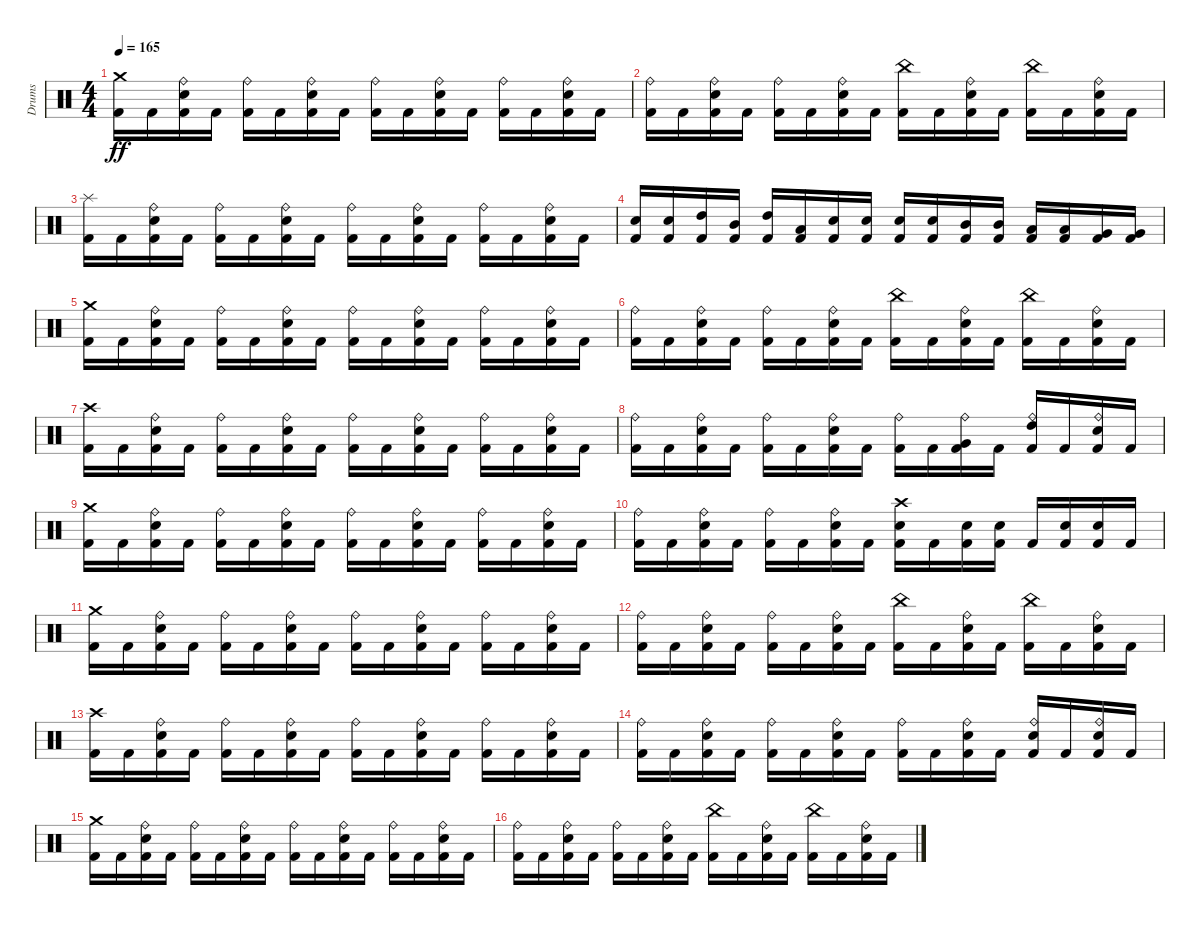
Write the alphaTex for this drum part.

\track ("Drums" "Drums") {instrument percussion}
\staff {score}
\articulation defaults
\ts (4 4)
\tempo 165
\clef neutral
\ks c
("Crash medium (hit)" "Kick (hit) 2").16{dy ff} "Kick (hit) 2".16 ("Ride (bell)" "Electric Snare (hit)" "Kick (hit) 2").16 "Kick (hit) 2".16 ("Ride (bell)" "Kick (hit) 2").16 "Kick (hit) 2".16 ("Ride (bell)" "Electric Snare (hit)" "Kick (hit) 2").16 "Kick (hit) 2".16 ("Ride (bell)" "Kick (hit) 2").16 "Kick (hit) 2".16 ("Ride (bell)" "Electric Snare (hit)" "Kick (hit) 2").16 "Kick (hit) 2".16 ("Ride (bell)" "Kick (hit) 2").16 "Kick (hit) 2".16 ("Ride (bell)" "Electric Snare (hit)" "Kick (hit) 2").16 "Kick (hit) 2".16 |
("Ride (bell)" "Kick (hit) 2").16 "Kick (hit) 2".16 ("Ride (bell)" "Electric Snare (hit)" "Kick (hit) 2").16 "Kick (hit) 2".16 ("Ride (bell)" "Kick (hit) 2").16 "Kick (hit) 2".16 ("Ride (bell)" "Electric Snare (hit)" "Kick (hit) 2").16 "Kick (hit) 2".16 ("China (hit)" "Kick (hit) 2").16 "Kick (hit) 2".16 ("Ride (bell)" "Electric Snare (hit)" "Kick (hit) 2").16 "Kick (hit) 2".16 ("China (hit)" "Kick (hit) 2").16 "Kick (hit) 2".16 ("Ride (bell)" "Electric Snare (hit)" "Kick (hit) 2").16 "Kick (hit) 2".16 |
("Splash (hit)" "Kick (hit) 2").16 "Kick (hit) 2".16 ("Ride (bell)" "Electric Snare (hit)" "Kick (hit) 2").16 "Kick (hit) 2".16 ("Ride (bell)" "Kick (hit) 2").16 "Kick (hit) 2".16 ("Ride (bell)" "Electric Snare (hit)" "Kick (hit) 2").16 "Kick (hit) 2".16 ("Ride (bell)" "Kick (hit) 2").16 "Kick (hit) 2".16 ("Ride (bell)" "Electric Snare (hit)" "Kick (hit) 2").16 "Kick (hit) 2".16 ("Ride (bell)" "Kick (hit) 2").16 "Kick (hit) 2".16 ("Ride (bell)" "Electric Snare (hit)" "Kick (hit) 2").16 "Kick (hit) 2".16 |
("Electric Snare (hit)" "Kick (hit) 2").16 ("Electric Snare (hit)" "Kick (hit) 2").16 ("High Tom (hit)" "Kick (hit) 2").16 ("Mid Tom (hit)" "Kick (hit) 2").16 ("High Tom (hit)" "Kick (hit) 2").16 ("Low Tom (hit)" "Kick (hit) 2").16 ("Electric Snare (hit)" "Kick (hit) 2").16 ("Electric Snare (hit)" "Kick (hit) 2").16 ("Electric Snare (hit)" "Kick (hit) 2").16 ("Electric Snare (hit)" "Kick (hit) 2").16 ("Mid Tom (hit)" "Kick (hit) 2").16 ("Mid Tom (hit)" "Kick (hit) 2").16 ("Low Tom (hit)" "Kick (hit) 2").16 ("Low Tom (hit)" "Kick (hit) 2").16 ("Very Low Tom (hit)" "Kick (hit) 2").16 ("Very Low Tom (hit)" "Kick (hit) 2").16 |
("Crash medium (hit)" "Kick (hit) 2").16 "Kick (hit) 2".16 ("Ride (bell)" "Electric Snare (hit)" "Kick (hit) 2").16 "Kick (hit) 2".16 ("Ride (bell)" "Kick (hit) 2").16 "Kick (hit) 2".16 ("Ride (bell)" "Electric Snare (hit)" "Kick (hit) 2").16 "Kick (hit) 2".16 ("Ride (bell)" "Kick (hit) 2").16 "Kick (hit) 2".16 ("Ride (bell)" "Electric Snare (hit)" "Kick (hit) 2").16 "Kick (hit) 2".16 ("Ride (bell)" "Kick (hit) 2").16 "Kick (hit) 2".16 ("Ride (bell)" "Electric Snare (hit)" "Kick (hit) 2").16 "Kick (hit) 2".16 |
("Ride (bell)" "Kick (hit) 2").16 "Kick (hit) 2".16 ("Ride (bell)" "Electric Snare (hit)" "Kick (hit) 2").16 "Kick (hit) 2".16 ("Ride (bell)" "Kick (hit) 2").16 "Kick (hit) 2".16 ("Ride (bell)" "Electric Snare (hit)" "Kick (hit) 2").16 "Kick (hit) 2".16 ("China (hit)" "Kick (hit) 2").16 "Kick (hit) 2".16 ("Ride (bell)" "Electric Snare (hit)" "Kick (hit) 2").16 "Kick (hit) 2".16 ("China (hit)" "Kick (hit) 2").16 "Kick (hit) 2".16 ("Ride (bell)" "Electric Snare (hit)" "Kick (hit) 2").16 "Kick (hit) 2".16 |
("Crash high (hit)" "Kick (hit) 2").16 "Kick (hit) 2".16 ("Ride (bell)" "Electric Snare (hit)" "Kick (hit) 2").16 "Kick (hit) 2".16 ("Ride (bell)" "Kick (hit) 2").16 "Kick (hit) 2".16 ("Ride (bell)" "Electric Snare (hit)" "Kick (hit) 2").16 "Kick (hit) 2".16 ("Ride (bell)" "Kick (hit) 2").16 "Kick (hit) 2".16 ("Ride (bell)" "Electric Snare (hit)" "Kick (hit) 2").16 "Kick (hit) 2".16 ("Ride (bell)" "Kick (hit) 2").16 "Kick (hit) 2".16 ("Ride (bell)" "Electric Snare (hit)" "Kick (hit) 2").16 "Kick (hit) 2".16 |
("Ride (bell)" "Kick (hit) 2").16 "Kick (hit) 2".16 ("Ride (bell)" "Electric Snare (hit)" "Kick (hit) 2").16 "Kick (hit) 2".16 ("Ride (bell)" "Kick (hit) 2").16 "Kick (hit) 2".16 ("Ride (bell)" "Electric Snare (hit)" "Kick (hit) 2").16 "Kick (hit) 2".16 ("Ride (bell)" "Kick (hit) 2").16 "Kick (hit) 2".16 ("Ride (bell)" "Very Low Tom (hit)" "Kick (hit) 2").16 "Kick (hit) 2".16 ("Ride (bell)" "High Tom (hit)" "Kick (hit) 2").16 "Kick (hit) 2".16 ("Ride (bell)" "Electric Snare (hit)" "Kick (hit) 2").16 "Kick (hit) 2".16 |
("Crash medium (hit)" "Kick (hit) 2").16 "Kick (hit) 2".16 ("Ride (bell)" "Electric Snare (hit)" "Kick (hit) 2").16 "Kick (hit) 2".16 ("Ride (bell)" "Kick (hit) 2").16 "Kick (hit) 2".16 ("Ride (bell)" "Electric Snare (hit)" "Kick (hit) 2").16 "Kick (hit) 2".16 ("Ride (bell)" "Kick (hit) 2").16 "Kick (hit) 2".16 ("Ride (bell)" "Electric Snare (hit)" "Kick (hit) 2").16 "Kick (hit) 2".16 ("Ride (bell)" "Kick (hit) 2").16 "Kick (hit) 2".16 ("Ride (bell)" "Electric Snare (hit)" "Kick (hit) 2").16 "Kick (hit) 2".16 |
("Ride (bell)" "Kick (hit) 2").16 "Kick (hit) 2".16 ("Ride (bell)" "Electric Snare (hit)" "Kick (hit) 2").16 "Kick (hit) 2".16 ("Ride (bell)" "Kick (hit) 2").16 "Kick (hit) 2".16 ("Ride (bell)" "Electric Snare (hit)" "Kick (hit) 2").16 "Kick (hit) 2".16 ("Crash high (hit)" "Electric Snare (hit)" "Kick (hit) 2").16 "Kick (hit) 2".16 ("Electric Snare (hit)" "Kick (hit) 2").16 ("Electric Snare (hit)" "Kick (hit) 2").16 "Kick (hit) 2".16 ("Electric Snare (hit)" "Kick (hit) 2").16 ("Electric Snare (hit)" "Kick (hit) 2").16 "Kick (hit) 2".16 |
("Crash medium (hit)" "Kick (hit) 2").16 "Kick (hit) 2".16 ("Ride (bell)" "Electric Snare (hit)" "Kick (hit) 2").16 "Kick (hit) 2".16 ("Ride (bell)" "Kick (hit) 2").16 "Kick (hit) 2".16 ("Ride (bell)" "Electric Snare (hit)" "Kick (hit) 2").16 "Kick (hit) 2".16 ("Ride (bell)" "Kick (hit) 2").16 "Kick (hit) 2".16 ("Ride (bell)" "Electric Snare (hit)" "Kick (hit) 2").16 "Kick (hit) 2".16 ("Ride (bell)" "Kick (hit) 2").16 "Kick (hit) 2".16 ("Ride (bell)" "Electric Snare (hit)" "Kick (hit) 2").16 "Kick (hit) 2".16 |
("Ride (bell)" "Kick (hit) 2").16 "Kick (hit) 2".16 ("Ride (bell)" "Electric Snare (hit)" "Kick (hit) 2").16 "Kick (hit) 2".16 ("Ride (bell)" "Kick (hit) 2").16 "Kick (hit) 2".16 ("Ride (bell)" "Electric Snare (hit)" "Kick (hit) 2").16 "Kick (hit) 2".16 ("China (hit)" "Kick (hit) 2").16 "Kick (hit) 2".16 ("Ride (bell)" "Electric Snare (hit)" "Kick (hit) 2").16 "Kick (hit) 2".16 ("China (hit)" "Kick (hit) 2").16 "Kick (hit) 2".16 ("Ride (bell)" "Electric Snare (hit)" "Kick (hit) 2").16 "Kick (hit) 2".16 |
("Crash high (hit)" "Kick (hit) 2").16 "Kick (hit) 2".16 ("Ride (bell)" "Electric Snare (hit)" "Kick (hit) 2").16 "Kick (hit) 2".16 ("Ride (bell)" "Kick (hit) 2").16 "Kick (hit) 2".16 ("Ride (bell)" "Electric Snare (hit)" "Kick (hit) 2").16 "Kick (hit) 2".16 ("Ride (bell)" "Kick (hit) 2").16 "Kick (hit) 2".16 ("Ride (bell)" "Electric Snare (hit)" "Kick (hit) 2").16 "Kick (hit) 2".16 ("Ride (bell)" "Kick (hit) 2").16 "Kick (hit) 2".16 ("Ride (bell)" "Electric Snare (hit)" "Kick (hit) 2").16 "Kick (hit) 2".16 |
("Ride (bell)" "Kick (hit) 2").16 "Kick (hit) 2".16 ("Ride (bell)" "Electric Snare (hit)" "Kick (hit) 2").16 "Kick (hit) 2".16 ("Ride (bell)" "Kick (hit) 2").16 "Kick (hit) 2".16 ("Ride (bell)" "Electric Snare (hit)" "Kick (hit) 2").16 "Kick (hit) 2".16 ("Ride (bell)" "Kick (hit) 2").16 "Kick (hit) 2".16 ("Ride (bell)" "Electric Snare (hit)" "Kick (hit) 2").16 "Kick (hit) 2".16 ("Ride (bell)" "Electric Snare (hit)" "Kick (hit) 2").16 "Kick (hit) 2".16 ("Ride (bell)" "Electric Snare (hit)" "Kick (hit) 2").16 "Kick (hit) 2".16 |
("Crash medium (hit)" "Kick (hit) 2").16 "Kick (hit) 2".16 ("Ride (bell)" "Electric Snare (hit)" "Kick (hit) 2").16 "Kick (hit) 2".16 ("Ride (bell)" "Kick (hit) 2").16 "Kick (hit) 2".16 ("Ride (bell)" "Electric Snare (hit)" "Kick (hit) 2").16 "Kick (hit) 2".16 ("Ride (bell)" "Kick (hit) 2").16 "Kick (hit) 2".16 ("Ride (bell)" "Electric Snare (hit)" "Kick (hit) 2").16 "Kick (hit) 2".16 ("Ride (bell)" "Kick (hit) 2").16 "Kick (hit) 2".16 ("Ride (bell)" "Electric Snare (hit)" "Kick (hit) 2").16 "Kick (hit) 2".16 |
("Ride (bell)" "Kick (hit) 2").16 "Kick (hit) 2".16 ("Ride (bell)" "Electric Snare (hit)" "Kick (hit) 2").16 "Kick (hit) 2".16 ("Ride (bell)" "Kick (hit) 2").16 "Kick (hit) 2".16 ("Ride (bell)" "Electric Snare (hit)" "Kick (hit) 2").16 "Kick (hit) 2".16 ("China (hit)" "Kick (hit) 2").16 "Kick (hit) 2".16 ("Ride (bell)" "Electric Snare (hit)" "Kick (hit) 2").16 "Kick (hit) 2".16 ("China (hit)" "Kick (hit) 2").16 "Kick (hit) 2".16 ("Ride (bell)" "Electric Snare (hit)" "Kick (hit) 2").16 "Kick (hit) 2".16
